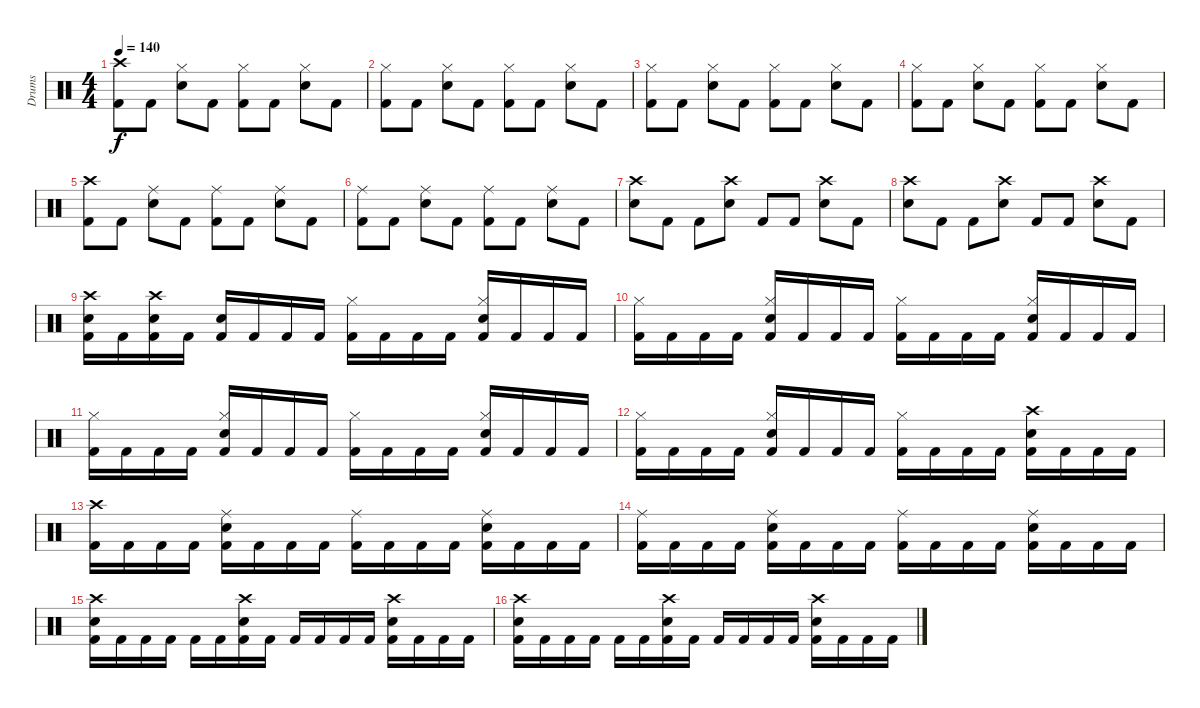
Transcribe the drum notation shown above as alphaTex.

\track ("Drums" "Drums") {instrument percussion}
\staff {score}
\articulation defaults
\ts (4 4)
\tempo 140
\clef neutral
\ks c
("Crash high (hit)" "Kick (hit) 2").8{dy f} "Kick (hit) 2".8 ("Hi-Hat (closed)" "Electric Snare (hit)").8 "Kick (hit) 2".8 ("Hi-Hat (closed)" "Kick (hit) 2").8 "Kick (hit) 2".8 ("Hi-Hat (closed)" "Electric Snare (hit)").8 "Kick (hit) 2".8 |
("Hi-Hat (closed)" "Kick (hit) 2").8 "Kick (hit) 2".8 ("Hi-Hat (closed)" "Electric Snare (hit)").8 "Kick (hit) 2".8 ("Hi-Hat (closed)" "Kick (hit) 2").8 "Kick (hit) 2".8 ("Hi-Hat (closed)" "Electric Snare (hit)").8 "Kick (hit) 2".8 |
("Hi-Hat (closed)" "Kick (hit) 2").8 "Kick (hit) 2".8 ("Hi-Hat (closed)" "Electric Snare (hit)").8 "Kick (hit) 2".8 ("Hi-Hat (closed)" "Kick (hit) 2").8 "Kick (hit) 2".8 ("Hi-Hat (closed)" "Electric Snare (hit)").8 "Kick (hit) 2".8 |
("Hi-Hat (closed)" "Kick (hit) 2").8 "Kick (hit) 2".8 ("Hi-Hat (closed)" "Electric Snare (hit)").8 "Kick (hit) 2".8 ("Hi-Hat (closed)" "Kick (hit) 2").8 "Kick (hit) 2".8 ("Hi-Hat (closed)" "Electric Snare (hit)").8 "Kick (hit) 2".8 |
("Crash high (hit)" "Kick (hit) 2").8 "Kick (hit) 2".8 ("Ride (middle)" "Electric Snare (hit)").8 "Kick (hit) 2".8 ("Ride (middle)" "Kick (hit) 2").8 "Kick (hit) 2".8 ("Ride (middle)" "Electric Snare (hit)").8 "Kick (hit) 2".8 |
("Ride (middle)" "Kick (hit) 2").8 "Kick (hit) 2".8 ("Ride (middle)" "Electric Snare (hit)").8 "Kick (hit) 2".8 ("Ride (middle)" "Kick (hit) 2").8 "Kick (hit) 2".8 ("Ride (middle)" "Electric Snare (hit)").8 "Kick (hit) 2".8 |
("Crash high (hit)" "Electric Snare (hit)").8 "Kick (hit) 2".8 "Kick (hit) 2".8 ("Crash high (hit)" "Electric Snare (hit)").8 "Kick (hit) 2".8 "Kick (hit) 2".8 ("Crash high (hit)" "Electric Snare (hit)").8 "Kick (hit) 2".8 |
("Crash high (hit)" "Electric Snare (hit)").8 "Kick (hit) 2".8 "Kick (hit) 2".8 ("Crash high (hit)" "Electric Snare (hit)").8 "Kick (hit) 2".8 "Kick (hit) 2".8 ("Crash high (hit)" "Electric Snare (hit)").8 "Kick (hit) 2".8 |
("Crash high (hit)" "Snare (hit) 2" "Kick (hit) 2").16 "Kick (hit) 2".16 ("Crash high (hit)" "Snare (hit) 2" "Kick (hit) 2").16 "Kick (hit) 2".16 ("Electric Snare (hit)" "Kick (hit) 2").16 "Kick (hit) 2".16 "Kick (hit) 2".16 "Kick (hit) 2".16 ("Hi-Hat (closed)" "Kick (hit) 2").16 "Kick (hit) 2".16 "Kick (hit) 2".16 "Kick (hit) 2".16 ("Hi-Hat (closed)" "Electric Snare (hit)" "Kick (hit) 2").16 "Kick (hit) 2".16 "Kick (hit) 2".16 "Kick (hit) 2".16 |
("Hi-Hat (closed)" "Kick (hit) 2").16 "Kick (hit) 2".16 "Kick (hit) 2".16 "Kick (hit) 2".16 ("Hi-Hat (closed)" "Electric Snare (hit)" "Kick (hit) 2").16 "Kick (hit) 2".16 "Kick (hit) 2".16 "Kick (hit) 2".16 ("Hi-Hat (closed)" "Kick (hit) 2").16 "Kick (hit) 2".16 "Kick (hit) 2".16 "Kick (hit) 2".16 ("Hi-Hat (closed)" "Electric Snare (hit)" "Kick (hit) 2").16 "Kick (hit) 2".16 "Kick (hit) 2".16 "Kick (hit) 2".16 |
("Hi-Hat (closed)" "Kick (hit) 2").16 "Kick (hit) 2".16 "Kick (hit) 2".16 "Kick (hit) 2".16 ("Hi-Hat (closed)" "Electric Snare (hit)" "Kick (hit) 2").16 "Kick (hit) 2".16 "Kick (hit) 2".16 "Kick (hit) 2".16 ("Hi-Hat (closed)" "Kick (hit) 2").16 "Kick (hit) 2".16 "Kick (hit) 2".16 "Kick (hit) 2".16 ("Hi-Hat (closed)" "Electric Snare (hit)" "Kick (hit) 2").16 "Kick (hit) 2".16 "Kick (hit) 2".16 "Kick (hit) 2".16 |
("Hi-Hat (closed)" "Kick (hit) 2").16 "Kick (hit) 2".16 "Kick (hit) 2".16 "Kick (hit) 2".16 ("Hi-Hat (closed)" "Electric Snare (hit)" "Kick (hit) 2").16 "Kick (hit) 2".16 "Kick (hit) 2".16 "Kick (hit) 2".16 ("Hi-Hat (closed)" "Kick (hit) 2").16 "Kick (hit) 2".16 "Kick (hit) 2".16 "Kick (hit) 2".16 ("Crash high (hit)" "Electric Snare (hit)" "Kick (hit) 2").16 "Kick (hit) 2".16 "Kick (hit) 2".16 "Kick (hit) 2".16 |
("Crash high (hit)" "Kick (hit) 2").16 "Kick (hit) 2".16 "Kick (hit) 2".16 "Kick (hit) 2".16 ("Ride (middle)" "Electric Snare (hit)" "Kick (hit) 2").16 "Kick (hit) 2".16 "Kick (hit) 2".16 "Kick (hit) 2".16 ("Ride (middle)" "Kick (hit) 2").16 "Kick (hit) 2".16 "Kick (hit) 2".16 "Kick (hit) 2".16 ("Ride (middle)" "Electric Snare (hit)" "Kick (hit) 2").16 "Kick (hit) 2".16 "Kick (hit) 2".16 "Kick (hit) 2".16 |
("Ride (middle)" "Kick (hit) 2").16 "Kick (hit) 2".16 "Kick (hit) 2".16 "Kick (hit) 2".16 ("Ride (middle)" "Electric Snare (hit)" "Kick (hit) 2").16 "Kick (hit) 2".16 "Kick (hit) 2".16 "Kick (hit) 2".16 ("Ride (middle)" "Kick (hit) 2").16 "Kick (hit) 2".16 "Kick (hit) 2".16 "Kick (hit) 2".16 ("Ride (middle)" "Electric Snare (hit)" "Kick (hit) 2").16 "Kick (hit) 2".16 "Kick (hit) 2".16 "Kick (hit) 2".16 |
("Crash high (hit)" "Electric Snare (hit)" "Kick (hit) 2").16 "Kick (hit) 2".16 "Kick (hit) 2".16 "Kick (hit) 2".16 "Kick (hit) 2".16 "Kick (hit) 2".16 ("Crash high (hit)" "Electric Snare (hit)" "Kick (hit) 2").16 "Kick (hit) 2".16 "Kick (hit) 2".16 "Kick (hit) 2".16 "Kick (hit) 2".16 "Kick (hit) 2".16 ("Crash high (hit)" "Electric Snare (hit)" "Kick (hit) 2").16 "Kick (hit) 2".16 "Kick (hit) 2".16 "Kick (hit) 2".16 |
("Crash high (hit)" "Electric Snare (hit)" "Kick (hit) 2").16 "Kick (hit) 2".16 "Kick (hit) 2".16 "Kick (hit) 2".16 "Kick (hit) 2".16 "Kick (hit) 2".16 ("Crash high (hit)" "Electric Snare (hit)" "Kick (hit) 2").16 "Kick (hit) 2".16 "Kick (hit) 2".16 "Kick (hit) 2".16 "Kick (hit) 2".16 "Kick (hit) 2".16 ("Crash high (hit)" "Electric Snare (hit)" "Kick (hit) 2").16 "Kick (hit) 2".16 "Kick (hit) 2".16 "Kick (hit) 2".16
